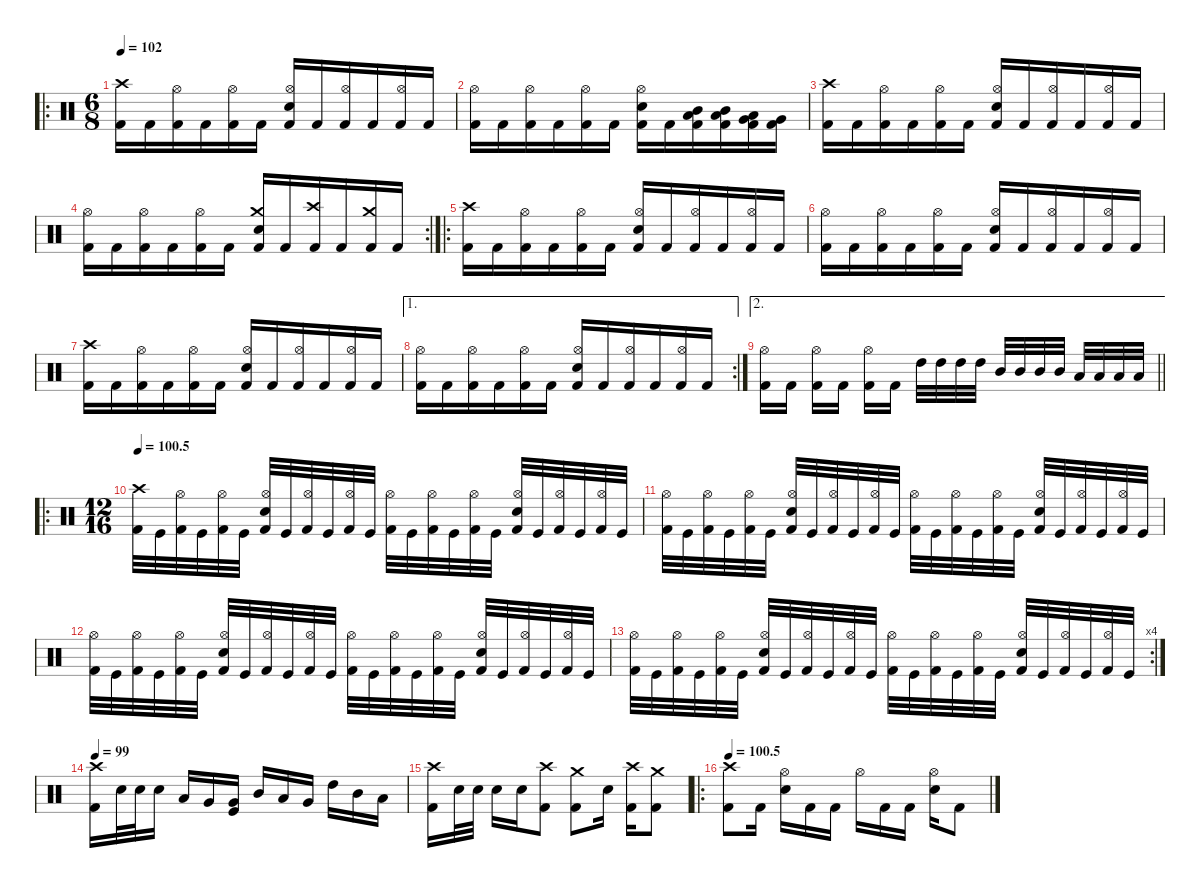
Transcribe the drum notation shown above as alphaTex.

\defaultSystemsLayout 4
\hideDynamics
\bracketExtendMode nobrackets
\singleTrackTrackNamePolicy hidden
\multiTrackTrackNamePolicy hidden
\firstSystemTrackNameMode fullname
\firstSystemTrackNameOrientation horizontal
\otherSystemsTrackNameOrientation horizontal
\track ("Drums" "drm.") {instrument percussion}
\staff {score}
\articulation defaults
\ro
\ts (6 8)
\beaming (8 3 3)
\tempo 102
\clef neutral
\ks c
("Crash high (hit)" "Kick (hit) 2").16{dy f beam Down} "Kick (hit) 2".16{beam Down} ("Hi-Hat (open)" "Kick (hit) 2").16{dy mp beam Down} "Kick (hit) 2".16{dy f beam Down} ("Hi-Hat (open)" "Kick (hit) 2").16{dy mp beam Down} "Kick (hit) 2".16{dy f beam Down} ("Hi-Hat (open)" "Snare (hit) 2" "Kick (hit) 2").16{dy mp beam Up} "Kick (hit) 2".16{dy f beam Up} ("Hi-Hat (open)" "Kick (hit) 2").16{dy mp beam Up} "Kick (hit) 2".16{dy f beam Up} ("Hi-Hat (open)" "Kick (hit) 2").16{dy mp beam Up} "Kick (hit) 2".16{dy f beam Up} |
("Hi-Hat (open)" "Kick (hit) 2").16{dy mp beam Down} "Kick (hit) 2".16{dy f beam Down} ("Hi-Hat (open)" "Kick (hit) 2").16{dy mp beam Down} "Kick (hit) 2".16{dy f beam Down} ("Hi-Hat (open)" "Kick (hit) 2").16{dy mp beam Down} "Kick (hit) 2".16{dy f beam Down} ("Hi-Hat (open)" "Snare (hit) 2" "Kick (hit) 2").16{dy mp beam Down} "Kick (hit) 2".16{dy f beam Down} ("Mid Tom (hit)" "Low Tom (hit)" "Kick (hit) 2").16{beam Down} ("Mid Tom (hit)" "Low Tom (hit)" "Kick (hit) 2").16{beam Down} ("Low Tom (hit)" "Very Low Tom (hit)" "Kick (hit) 2").16{beam Down} ("Very Low Tom (hit)" "Kick (hit) 2").16{beam Down} |
("Crash high (hit)" "Kick (hit) 2").16{beam Down} "Kick (hit) 2".16{beam Down} ("Hi-Hat (open)" "Kick (hit) 2").16{dy mp beam Down} "Kick (hit) 2".16{dy f beam Down} ("Hi-Hat (open)" "Kick (hit) 2").16{dy mp beam Down} "Kick (hit) 2".16{dy f beam Down} ("Hi-Hat (open)" "Snare (hit) 2" "Kick (hit) 2").16{dy mp beam Up} "Kick (hit) 2".16{dy f beam Up} ("Hi-Hat (open)" "Kick (hit) 2").16{dy mp beam Up} "Kick (hit) 2".16{dy f beam Up} ("Hi-Hat (open)" "Kick (hit) 2").16{dy mp beam Up} "Kick (hit) 2".16{dy f beam Up} |
\rc 2
("Hi-Hat (open)" "Kick (hit) 2").16{dy mp beam Down} "Kick (hit) 2".16{dy f beam Down} ("Hi-Hat (open)" "Kick (hit) 2").16{dy mp beam Down} "Kick (hit) 2".16{dy f beam Down} ("Hi-Hat (open)" "Kick (hit) 2").16{dy mp beam Down} "Kick (hit) 2".16{dy f beam Down} ("Crash medium (hit)" "Snare (hit) 2" "Kick (hit) 2").16{beam Up} "Kick (hit) 2".16{beam Up} ("Crash high (hit)" "Kick (hit) 2").16{beam Up} "Kick (hit) 2".16{beam Up} ("Crash medium (hit)" "Kick (hit) 2").16{beam Up} "Kick (hit) 2".16{beam Up} |
\ro
("Crash high (hit)" "Kick (hit) 2").16{beam Down} "Kick (hit) 2".16{beam Down} ("Hi-Hat (open)" "Kick (hit) 2").16{dy mp beam Down} "Kick (hit) 2".16{dy f beam Down} ("Hi-Hat (open)" "Kick (hit) 2").16{dy mp beam Down} "Kick (hit) 2".16{dy f beam Down} ("Hi-Hat (open)" "Snare (hit) 2" "Kick (hit) 2").16{dy mp beam Up} "Kick (hit) 2".16{dy f beam Up} ("Hi-Hat (open)" "Kick (hit) 2").16{dy mp beam Up} "Kick (hit) 2".16{dy f beam Up} ("Hi-Hat (open)" "Kick (hit) 2").16{dy mp beam Up} "Kick (hit) 2".16{dy f beam Up} |
("Hi-Hat (open)" "Kick (hit) 2").16{dy mp beam Down} "Kick (hit) 2".16{dy f beam Down} ("Hi-Hat (open)" "Kick (hit) 2").16{dy mp beam Down} "Kick (hit) 2".16{dy f beam Down} ("Hi-Hat (open)" "Kick (hit) 2").16{dy mp beam Down} "Kick (hit) 2".16{dy f beam Down} ("Hi-Hat (open)" "Snare (hit) 2" "Kick (hit) 2").16{dy mp beam Up} "Kick (hit) 2".16{dy f beam Up} ("Hi-Hat (open)" "Kick (hit) 2").16{dy mp beam Up} "Kick (hit) 2".16{dy f beam Up} ("Hi-Hat (open)" "Kick (hit) 2").16{dy mp beam Up} "Kick (hit) 2".16{dy f beam Up} |
("Crash high (hit)" "Kick (hit) 2").16{beam Down} "Kick (hit) 2".16{beam Down} ("Hi-Hat (open)" "Kick (hit) 2").16{dy mp beam Down} "Kick (hit) 2".16{dy f beam Down} ("Hi-Hat (open)" "Kick (hit) 2").16{dy mp beam Down} "Kick (hit) 2".16{dy f beam Down} ("Hi-Hat (open)" "Snare (hit) 2" "Kick (hit) 2").16{dy mp beam Up} "Kick (hit) 2".16{dy f beam Up} ("Hi-Hat (open)" "Kick (hit) 2").16{dy mp beam Up} "Kick (hit) 2".16{dy f beam Up} ("Hi-Hat (open)" "Kick (hit) 2").16{dy mp beam Up} "Kick (hit) 2".16{dy f beam Up} |
\ae 1
\rc 2
("Hi-Hat (open)" "Kick (hit) 2").16{dy mp beam Down} "Kick (hit) 2".16{dy f beam Down} ("Hi-Hat (open)" "Kick (hit) 2").16{dy mp beam Down} "Kick (hit) 2".16{dy f beam Down} ("Hi-Hat (open)" "Kick (hit) 2").16{dy mp beam Down} "Kick (hit) 2".16{dy f beam Down} ("Hi-Hat (open)" "Snare (hit) 2" "Kick (hit) 2").16{dy mp beam Up} "Kick (hit) 2".16{dy f beam Up} ("Hi-Hat (open)" "Kick (hit) 2").16{dy mp beam Up} "Kick (hit) 2".16{dy f beam Up} ("Hi-Hat (open)" "Kick (hit) 2").16{dy mp beam Up} "Kick (hit) 2".16{dy f beam Up} |
\ae 2
\barLineRight lightlight
("Hi-Hat (open)" "Kick (hit) 2").16{dy mp beam Down} "Kick (hit) 2".16{dy f beam Down beam split} ("Hi-Hat (open)" "Kick (hit) 2").16{dy mp beam Down} "Kick (hit) 2".16{dy f beam Down beam split} ("Hi-Hat (open)" "Kick (hit) 2").16{dy mp beam Down} "Kick (hit) 2".16{dy f beam Down} "High Tom (hit)".32{beam Down} "High Tom (hit)".32{dy mf beam Down} "High Tom (hit)".32{dy f beam Down} "High Tom (hit)".32{dy mf beam Down beam split} "Mid Tom (hit)".32{dy f beam Up} "Mid Tom (hit)".32{dy mf beam Up} "Mid Tom (hit)".32{dy f beam Up} "Mid Tom (hit)".32{dy mf beam Up beam split} "Low Tom (hit)".32{dy f beam Up} "Low Tom (hit)".32{dy mf beam Up} "Low Tom (hit)".32{dy f beam Up} "Low Tom (hit)".32{dy mf beam Up} |
\ro
\ts (12 16)
\beaming (8 3 3)
\tempo
100.5 ("Crash high (hit)" "Kick (hit) 2").32{dy f beam Down} "Kick (hit)".32{beam Down} ("Hi-Hat (open)" "Kick (hit) 2").32{dy mp beam Down} "Kick (hit)".32{beam Down} ("Hi-Hat (open)" "Kick (hit) 2").32{beam Down} "Kick (hit)".32{beam Down beam split} ("Hi-Hat (open)" "Snare (hit) 2" "Kick (hit) 2").32{beam Up} "Kick (hit)".32{beam Up} ("Hi-Hat (open)" "Kick (hit) 2").32{beam Up} "Kick (hit)".32{beam Up} ("Hi-Hat (open)" "Kick (hit) 2").32{beam Up} "Kick (hit)".32{beam Up} ("Hi-Hat (open)" "Kick (hit) 2").32{beam Down} "Kick (hit)".32{beam Down} ("Hi-Hat (open)" "Kick (hit) 2").32{beam Down} "Kick (hit)".32{beam Down} ("Hi-Hat (open)" "Kick (hit) 2").32{beam Down} "Kick (hit)".32{beam Down beam split} ("Hi-Hat (open)" "Snare (hit) 2" "Kick (hit) 2").32{beam Up} "Kick (hit)".32{beam Up} ("Hi-Hat (open)" "Kick (hit) 2").32{beam Up} "Kick (hit)".32{beam Up} ("Hi-Hat (open)" "Kick (hit) 2").32{beam Up} "Kick (hit)".32{beam Up} |
("Hi-Hat (open)" "Kick (hit) 2").32{beam Down} "Kick (hit)".32{beam Down} ("Hi-Hat (open)" "Kick (hit) 2").32{beam Down} "Kick (hit)".32{beam Down} ("Hi-Hat (open)" "Kick (hit) 2").32{beam Down} "Kick (hit)".32{beam Down beam split} ("Hi-Hat (open)" "Snare (hit) 2" "Kick (hit) 2").32{beam Up} "Kick (hit)".32{beam Up} ("Hi-Hat (open)" "Kick (hit) 2").32{beam Up} "Kick (hit)".32{beam Up} ("Hi-Hat (open)" "Kick (hit) 2").32{beam Up} "Kick (hit)".32{beam Up} ("Hi-Hat (open)" "Kick (hit) 2").32{beam Down} "Kick (hit)".32{beam Down} ("Hi-Hat (open)" "Kick (hit) 2").32{beam Down} "Kick (hit)".32{beam Down} ("Hi-Hat (open)" "Kick (hit) 2").32{beam Down} "Kick (hit)".32{beam Down beam split} ("Hi-Hat (open)" "Snare (hit) 2" "Kick (hit) 2").32{beam Up} "Kick (hit)".32{beam Up} ("Hi-Hat (open)" "Kick (hit) 2").32{beam Up} "Kick (hit)".32{beam Up} ("Hi-Hat (open)" "Kick (hit) 2").32{beam Up} "Kick (hit)".32{beam Up} |
("Hi-Hat (open)" "Kick (hit) 2").32{beam Down} "Kick (hit)".32{beam Down} ("Hi-Hat (open)" "Kick (hit) 2").32{beam Down} "Kick (hit)".32{beam Down} ("Hi-Hat (open)" "Kick (hit) 2").32{beam Down} "Kick (hit)".32{beam Down beam split} ("Hi-Hat (open)" "Snare (hit) 2" "Kick (hit) 2").32{beam Up} "Kick (hit)".32{beam Up} ("Hi-Hat (open)" "Kick (hit) 2").32{beam Up} "Kick (hit)".32{beam Up} ("Hi-Hat (open)" "Kick (hit) 2").32{beam Up} "Kick (hit)".32{beam Up} ("Hi-Hat (open)" "Kick (hit) 2").32{beam Down} "Kick (hit)".32{beam Down} ("Hi-Hat (open)" "Kick (hit) 2").32{beam Down} "Kick (hit)".32{beam Down} ("Hi-Hat (open)" "Kick (hit) 2").32{beam Down} "Kick (hit)".32{beam Down beam split} ("Hi-Hat (open)" "Snare (hit) 2" "Kick (hit) 2").32{beam Up} "Kick (hit)".32{beam Up} ("Hi-Hat (open)" "Kick (hit) 2").32{beam Up} "Kick (hit)".32{beam Up} ("Hi-Hat (open)" "Kick (hit) 2").32{beam Up} "Kick (hit)".32{beam Up} |
\rc 4
("Hi-Hat (open)" "Kick (hit) 2").32{beam Down} "Kick (hit)".32{beam Down} ("Hi-Hat (open)" "Kick (hit) 2").32{beam Down} "Kick (hit)".32{beam Down} ("Hi-Hat (open)" "Kick (hit) 2").32{beam Down} "Kick (hit)".32{beam Down beam split} ("Hi-Hat (open)" "Snare (hit) 2" "Kick (hit) 2").32{beam Up} "Kick (hit)".32{beam Up} ("Hi-Hat (open)" "Kick (hit) 2").32{beam Up} "Kick (hit)".32{beam Up} ("Hi-Hat (open)" "Kick (hit) 2").32{beam Up} "Kick (hit)".32{beam Up} ("Hi-Hat (open)" "Kick (hit) 2").32{beam Down} "Kick (hit)".32{beam Down} ("Hi-Hat (open)" "Kick (hit) 2").32{beam Down} "Kick (hit)".32{beam Down} ("Hi-Hat (open)" "Kick (hit) 2").32{beam Down} "Kick (hit)".32{beam Down beam split} ("Hi-Hat (open)" "Snare (hit) 2" "Kick (hit) 2").32{beam Up} "Kick (hit)".32{beam Up} ("Hi-Hat (open)" "Kick (hit) 2").32{beam Up} "Kick (hit)".32{beam Up} ("Hi-Hat (open)" "Kick (hit) 2").32{beam Up} "Kick (hit)".32{beam Up} |
\tempo 99
("Crash high (hit)" "Kick (hit) 2").16{dy f beam Down} "Snare (hit) 2".32{beam Down} "Snare (hit) 2".32{beam Down} "Snare (hit) 2".16{beam Down beam split} "Low Tom (hit)".16{beam Up} "Very Low Tom (hit)".16{beam Up} ("Very Low Tom (hit)" "Kick (hit)").16{beam Up} "Mid Tom (hit)".16{beam Up} "Low Tom (hit)".16{beam Up} "Very Low Tom (hit)".16{beam Up beam split} "High Tom (hit)".16{beam Down} "Mid Tom (hit)".16{beam Down} "Low Tom (hit)".16{beam Down} |
("Crash high (hit)" "Kick (hit) 2").16{beam Down} "Snare (hit) 2".32{beam Down} "Snare (hit) 2".32{beam Down beam split} "Snare (hit) 2".16{beam Down} "Snare (hit) 2".16{beam Down} ("Crash high (hit)" "Kick (hit) 2").8{beam Down} ("Crash medium (hit)" "Kick (hit) 2").8{beam Down} "Snare (hit) 2".16{beam Down beam split} ("Crash high (hit)" "Kick (hit) 2").16{beam Down} ("Crash medium (hit)" "Kick (hit) 2").8{beam Down} |
\ro
\tempo
100.5 ("Crash high (hit)" "Kick (hit) 2").8{beam Down} "Kick (hit) 2".16{dy ff beam Down beam split} ("Hi-Hat (open)" "Snare (hit) 2").16{dy f beam Down} "Kick (hit) 2".16{dy ff beam Down} "Kick (hit) 2".16{beam Down} "Hi-Hat (open)".16{dy f beam Down} "Kick (hit) 2".16{dy ff beam Down} "Kick (hit) 2".16{beam Down beam split} ("Hi-Hat (open)" "Snare (hit) 2").16{dy f beam Down} "Kick (hit) 2".8{dy ff beam Down}
